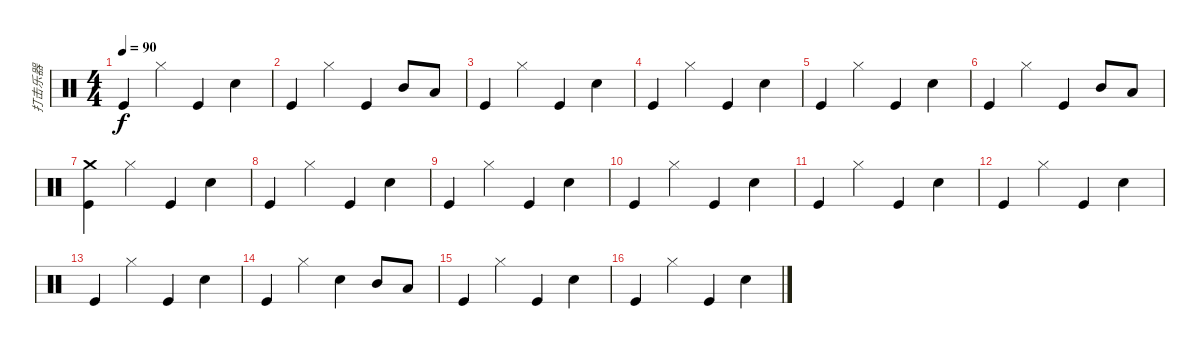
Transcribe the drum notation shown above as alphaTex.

\track ("打击乐器" "打击乐器") {instrument percussion}
\staff {score}
\articulation defaults
\ts (4 4)
\tempo 90
\clef neutral
\ks c "Kick (hit)".4{dy f} "Hi-Hat (closed)".4 "Kick (hit)".4 "Electric Snare (hit)".4
|
"Kick (hit)".4 "Hi-Hat (closed)".4 "Kick (hit)".4 "Mid Tom (hit)".8 "Low Tom (hit)".8 |
"Kick (hit)".4 "Hi-Hat (closed)".4 "Kick (hit)".4 "Electric Snare (hit)".4 |
"Kick (hit)".4 "Hi-Hat (closed)".4 "Kick (hit)".4 "Electric Snare (hit)".4 |
"Kick (hit)".4 "Hi-Hat (closed)".4 "Kick (hit)".4 "Electric Snare (hit)".4 |
"Kick (hit)".4 "Hi-Hat (closed)".4 "Kick (hit)".4 "Mid Tom (hit)".8 "Low Tom (hit)".8 |
("Crash medium (hit)" "Kick (hit)").4 "Hi-Hat (closed)".4 "Kick (hit)".4 "Electric Snare (hit)".4 |
"Kick (hit)".4 "Hi-Hat (closed)".4 "Kick (hit)".4 "Electric Snare (hit)".4 |
"Kick (hit)".4 "Hi-Hat (closed)".4 "Kick (hit)".4 "Electric Snare (hit)".4 |
"Kick (hit)".4 "Hi-Hat (closed)".4 "Kick (hit)".4 "Electric Snare (hit)".4 |
"Kick (hit)".4 "Hi-Hat (closed)".4 "Kick (hit)".4 "Electric Snare (hit)".4 |
"Kick (hit)".4 "Hi-Hat (closed)".4 "Kick (hit)".4 "Electric Snare (hit)".4 |
"Kick (hit)".4 "Hi-Hat (closed)".4 "Kick (hit)".4 "Electric Snare (hit)".4 |
"Kick (hit)".4 "Hi-Hat (closed)".4 "Electric Snare (hit)".4 "Mid Tom (hit)".8 "Low Tom (hit)".8 |
"Kick (hit)".4 "Hi-Hat (closed)".4 "Kick (hit)".4 "Electric Snare (hit)".4 |
"Kick (hit)".4 "Hi-Hat (closed)".4 "Kick (hit)".4 "Electric Snare (hit)".4
